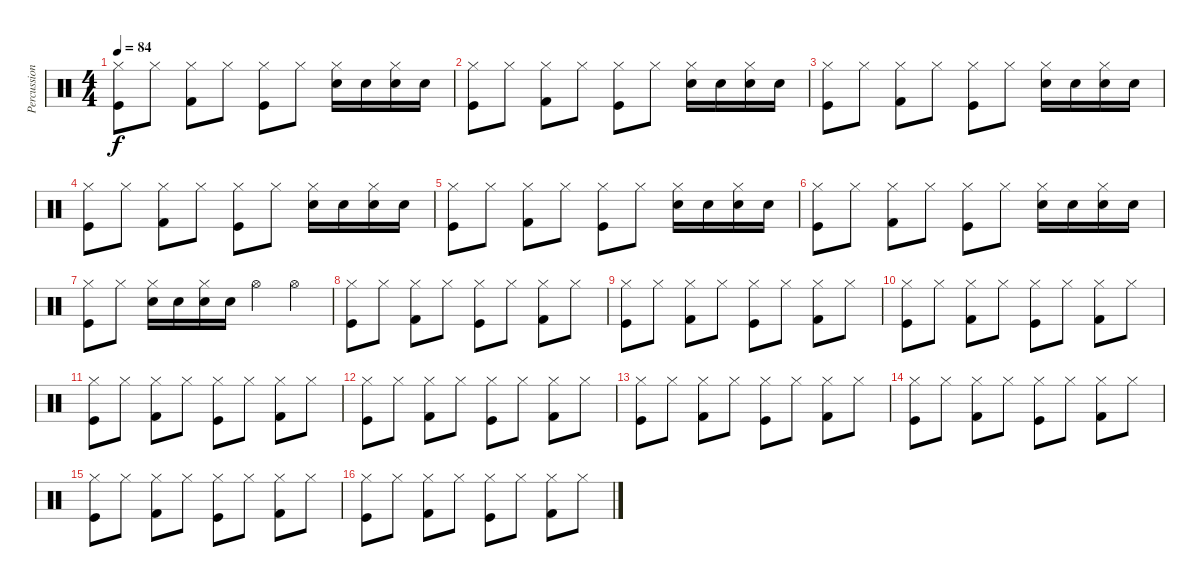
\track ("Percussions" "Percussion") {instrument percussion}
\staff {score}
\articulation defaults
\ts (4 4)
\tempo 84
\clef neutral
\ks c
("Hi-Hat (closed)" "Kick (hit)").8{dy f} "Hi-Hat (closed)".8 ("Hi-Hat (closed)" "Kick (hit) 2").8 "Hi-Hat (closed)".8 ("Hi-Hat (closed)" "Kick (hit)").8 "Hi-Hat (closed)".8 ("Hi-Hat (closed)" "Snare (hit) 2").16 "Snare (hit) 2".16 ("Hi-Hat (closed)" "Snare (hit) 2").16 "Snare (hit) 2".16 |
("Hi-Hat (closed)" "Kick (hit)").8 "Hi-Hat (closed)".8 ("Hi-Hat (closed)" "Kick (hit) 2").8 "Hi-Hat (closed)".8 ("Hi-Hat (closed)" "Kick (hit)").8 "Hi-Hat (closed)".8 ("Hi-Hat (closed)" "Snare (hit) 2").16 "Snare (hit) 2".16 ("Hi-Hat (closed)" "Snare (hit) 2").16 "Snare (hit) 2".16 |
("Hi-Hat (closed)" "Kick (hit)").8 "Hi-Hat (closed)".8 ("Hi-Hat (closed)" "Kick (hit) 2").8 "Hi-Hat (closed)".8 ("Hi-Hat (closed)" "Kick (hit)").8 "Hi-Hat (closed)".8 ("Hi-Hat (closed)" "Snare (hit) 2").16 "Snare (hit) 2".16 ("Hi-Hat (closed)" "Snare (hit) 2").16 "Snare (hit) 2".16 |
("Hi-Hat (closed)" "Kick (hit)").8 "Hi-Hat (closed)".8 ("Hi-Hat (closed)" "Kick (hit) 2").8 "Hi-Hat (closed)".8 ("Hi-Hat (closed)" "Kick (hit)").8 "Hi-Hat (closed)".8 ("Hi-Hat (closed)" "Snare (hit) 2").16 "Snare (hit) 2".16 ("Hi-Hat (closed)" "Snare (hit) 2").16 "Snare (hit) 2".16 |
("Hi-Hat (closed)" "Kick (hit)").8 "Hi-Hat (closed)".8 ("Hi-Hat (closed)" "Kick (hit) 2").8 "Hi-Hat (closed)".8 ("Hi-Hat (closed)" "Kick (hit)").8 "Hi-Hat (closed)".8 ("Hi-Hat (closed)" "Snare (hit) 2").16 "Snare (hit) 2".16 ("Hi-Hat (closed)" "Snare (hit) 2").16 "Snare (hit) 2".16 |
("Hi-Hat (closed)" "Kick (hit)").8 "Hi-Hat (closed)".8 ("Hi-Hat (closed)" "Kick (hit) 2").8 "Hi-Hat (closed)".8 ("Hi-Hat (closed)" "Kick (hit)").8 "Hi-Hat (closed)".8 ("Hi-Hat (closed)" "Snare (hit) 2").16 "Snare (hit) 2".16 ("Hi-Hat (closed)" "Snare (hit) 2").16 "Snare (hit) 2".16 |
("Hi-Hat (closed)" "Kick (hit)").8 "Hi-Hat (closed)".8 ("Hi-Hat (closed)" "Snare (hit) 2").16 "Snare (hit) 2".16 ("Hi-Hat (closed)" "Snare (hit) 2").16 "Snare (hit) 2".16 "Hi-Hat (open)".4 "Hi-Hat (open)".4 |
("Hi-Hat (closed)" "Kick (hit)").8 "Hi-Hat (closed)".8 ("Hi-Hat (closed)" "Kick (hit) 2").8 "Hi-Hat (closed)".8 ("Hi-Hat (closed)" "Kick (hit)").8 "Hi-Hat (closed)".8 ("Hi-Hat (closed)" "Kick (hit) 2").8 "Hi-Hat (closed)".8 |
("Hi-Hat (closed)" "Kick (hit)").8 "Hi-Hat (closed)".8 ("Hi-Hat (closed)" "Kick (hit) 2").8 "Hi-Hat (closed)".8 ("Hi-Hat (closed)" "Kick (hit)").8 "Hi-Hat (closed)".8 ("Hi-Hat (closed)" "Kick (hit) 2").8 "Hi-Hat (closed)".8 |
("Hi-Hat (closed)" "Kick (hit)").8 "Hi-Hat (closed)".8 ("Hi-Hat (closed)" "Kick (hit) 2").8 "Hi-Hat (closed)".8 ("Hi-Hat (closed)" "Kick (hit)").8 "Hi-Hat (closed)".8 ("Hi-Hat (closed)" "Kick (hit) 2").8 "Hi-Hat (closed)".8 |
("Hi-Hat (closed)" "Kick (hit)").8 "Hi-Hat (closed)".8 ("Hi-Hat (closed)" "Kick (hit) 2").8 "Hi-Hat (closed)".8 ("Hi-Hat (closed)" "Kick (hit)").8 "Hi-Hat (closed)".8 ("Hi-Hat (closed)" "Kick (hit) 2").8 "Hi-Hat (closed)".8 |
("Hi-Hat (closed)" "Kick (hit)").8 "Hi-Hat (closed)".8 ("Hi-Hat (closed)" "Kick (hit) 2").8 "Hi-Hat (closed)".8 ("Hi-Hat (closed)" "Kick (hit)").8 "Hi-Hat (closed)".8 ("Hi-Hat (closed)" "Kick (hit) 2").8 "Hi-Hat (closed)".8 |
("Hi-Hat (closed)" "Kick (hit)").8 "Hi-Hat (closed)".8 ("Hi-Hat (closed)" "Kick (hit) 2").8 "Hi-Hat (closed)".8 ("Hi-Hat (closed)" "Kick (hit)").8 "Hi-Hat (closed)".8 ("Hi-Hat (closed)" "Kick (hit) 2").8 "Hi-Hat (closed)".8 |
("Hi-Hat (closed)" "Kick (hit)").8 "Hi-Hat (closed)".8 ("Hi-Hat (closed)" "Kick (hit) 2").8 "Hi-Hat (closed)".8 ("Hi-Hat (closed)" "Kick (hit)").8 "Hi-Hat (closed)".8 ("Hi-Hat (closed)" "Kick (hit) 2").8 "Hi-Hat (closed)".8 |
("Hi-Hat (closed)" "Kick (hit)").8 "Hi-Hat (closed)".8 ("Hi-Hat (closed)" "Kick (hit) 2").8 "Hi-Hat (closed)".8 ("Hi-Hat (closed)" "Kick (hit)").8 "Hi-Hat (closed)".8 ("Hi-Hat (closed)" "Kick (hit) 2").8 "Hi-Hat (closed)".8 |
("Hi-Hat (closed)" "Kick (hit)").8 "Hi-Hat (closed)".8 ("Hi-Hat (closed)" "Kick (hit) 2").8 "Hi-Hat (closed)".8 ("Hi-Hat (closed)" "Kick (hit)").8 "Hi-Hat (closed)".8 ("Hi-Hat (closed)" "Kick (hit) 2").8 "Hi-Hat (closed)".8
